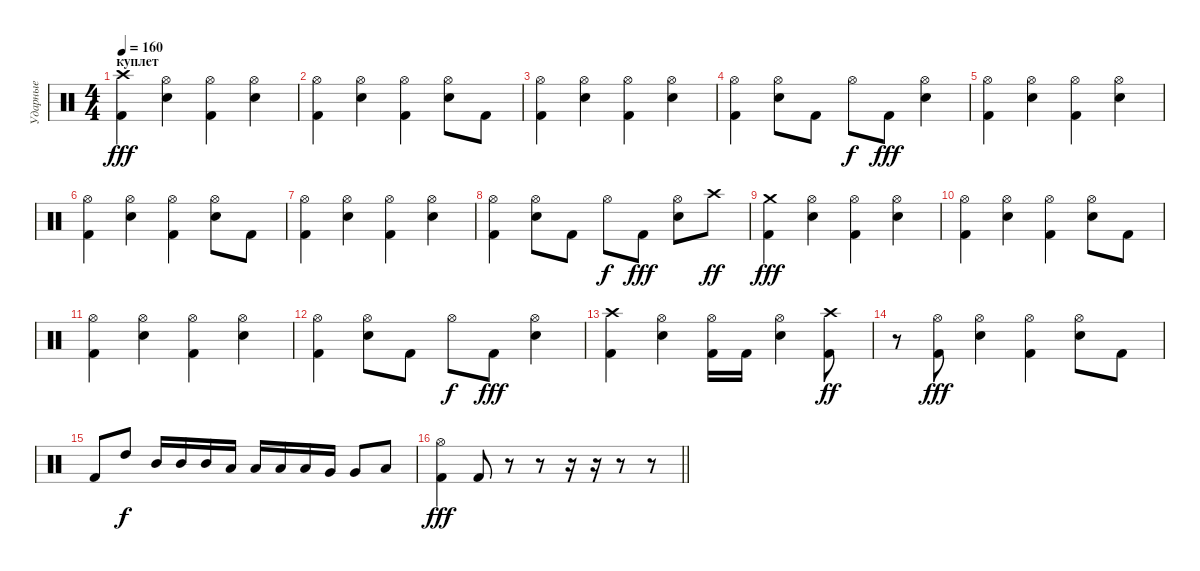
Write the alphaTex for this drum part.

\track ("Ударные" "Ударные") {instrument percussion}
\staff {score}
\articulation defaults
\ts (4 4)
\section ("" "куплет")
\tempo 160
\clef neutral
\ks c
("Kick (hit) 2" "Crash high (hit)").4{dy fff} ("Electric Snare (hit)" "Hi-Hat (open)").4 ("Kick (hit) 2" "Hi-Hat (open)").4 ("Electric Snare (hit)" "Hi-Hat (open)").4 |
("Kick (hit) 2" "Hi-Hat (open)").4 ("Electric Snare (hit)" "Hi-Hat (open)").4 ("Kick (hit) 2" "Hi-Hat (open)").4 ("Electric Snare (hit)" "Hi-Hat (open)").8 "Kick (hit) 2".8 |
("Kick (hit) 2" "Hi-Hat (open)").4 ("Electric Snare (hit)" "Hi-Hat (open)").4 ("Kick (hit) 2" "Hi-Hat (open)").4 ("Electric Snare (hit)" "Hi-Hat (open)").4 |
("Kick (hit) 2" "Hi-Hat (open)").4 ("Electric Snare (hit)" "Hi-Hat (open)").8 "Kick (hit) 2".8 "Hi-Hat (open)".8{dy f} "Kick (hit) 2".8{dy fff} ("Electric Snare (hit)" "Hi-Hat (open)").4 |
("Kick (hit) 2" "Hi-Hat (open)").4 ("Electric Snare (hit)" "Hi-Hat (open)").4 ("Kick (hit) 2" "Hi-Hat (open)").4 ("Electric Snare (hit)" "Hi-Hat (open)").4 |
("Kick (hit) 2" "Hi-Hat (open)").4 ("Electric Snare (hit)" "Hi-Hat (open)").4 ("Kick (hit) 2" "Hi-Hat (open)").4 ("Electric Snare (hit)" "Hi-Hat (open)").8 "Kick (hit) 2".8 |
("Kick (hit) 2" "Hi-Hat (open)").4 ("Electric Snare (hit)" "Hi-Hat (open)").4 ("Kick (hit) 2" "Hi-Hat (open)").4 ("Electric Snare (hit)" "Hi-Hat (open)").4 |
("Kick (hit) 2" "Hi-Hat (open)").4 ("Electric Snare (hit)" "Hi-Hat (open)").8 "Kick (hit) 2".8 "Hi-Hat (open)".8{dy f} "Kick (hit) 2".8{dy fff} ("Electric Snare (hit)" "Hi-Hat (open)").8 "Crash high (hit)".8{dy ff} |
("Kick (hit) 2" "Crash medium (hit)").4{dy fff} ("Electric Snare (hit)" "Hi-Hat (open)").4 ("Kick (hit) 2" "Hi-Hat (open)").4 ("Electric Snare (hit)" "Hi-Hat (open)").4 |
("Kick (hit) 2" "Hi-Hat (open)").4 ("Electric Snare (hit)" "Hi-Hat (open)").4 ("Kick (hit) 2" "Hi-Hat (open)").4 ("Electric Snare (hit)" "Hi-Hat (open)").8 "Kick (hit) 2".8 |
("Kick (hit) 2" "Hi-Hat (open)").4 ("Electric Snare (hit)" "Hi-Hat (open)").4 ("Kick (hit) 2" "Hi-Hat (open)").4 ("Electric Snare (hit)" "Hi-Hat (open)").4 |
("Kick (hit) 2" "Hi-Hat (open)").4 ("Electric Snare (hit)" "Hi-Hat (open)").8 "Kick (hit) 2".8 "Hi-Hat (open)".8{dy f} "Kick (hit) 2".8{dy fff} ("Electric Snare (hit)" "Hi-Hat (open)").4 |
("Kick (hit) 2" "Crash high (hit)").4 ("Electric Snare (hit)" "Hi-Hat (open)").4 ("Kick (hit) 2" "Hi-Hat (open)").16 "Kick (hit) 2".16 ("Electric Snare (hit)" "Hi-Hat (open)").4 ("Kick (hit) 2" "Crash high (hit)").8{dy ff} |
r.8 ("Kick (hit) 2" "Hi-Hat (open)").8{dy fff} ("Electric Snare (hit)" "Hi-Hat (open)").4 ("Kick (hit) 2" "Hi-Hat (open)").4 ("Electric Snare (hit)" "Hi-Hat (open)").8 "Kick (hit) 2".8 |
"Kick (hit) 2".8 "High Tom (hit)".8{dy f} "Mid Tom (hit)".16 "Mid Tom (hit)".16 "Mid Tom (hit)".16 "Low Tom (hit)".16 "Low Tom (hit)".16 "Low Tom (hit)".16 "Low Tom (hit)".16 "Very Low Tom (hit)".16 "Very Low Tom (hit)".8 "Low Floor Tom (hit)".8 |
\barLineRight lightlight
("Kick (hit) 2" "Hi-Hat (open)").4{dy fff} "Kick (hit) 2".8 r.8 r.8 r.16 r.16 r.8 r.8
